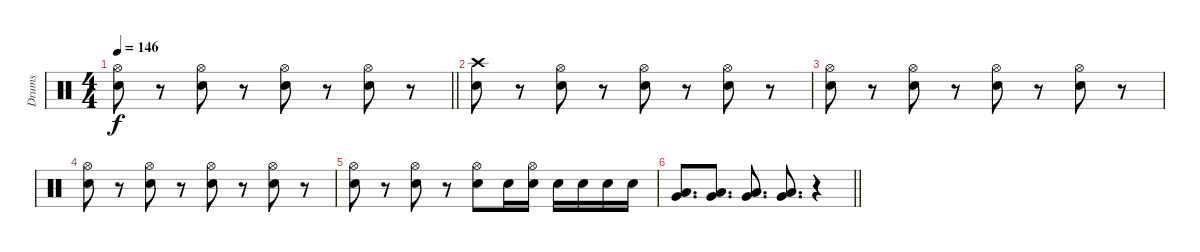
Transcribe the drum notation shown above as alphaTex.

\track ("Drums" "Drums") {instrument percussion}
\staff {score}
\articulation defaults
\ts (4 4)
\tempo 146
\clef neutral
\barLineRight lightlight
\ks c
("Hi-Hat (open)" "Snare (hit) 2").8{dy f} r.8 ("Hi-Hat (open)" "Snare (hit) 2").8 r.8 ("Hi-Hat (open)" "Snare (hit) 2").8 r.8 ("Hi-Hat (open)" "Snare (hit) 2").8 r.8 |
("Crash high (hit)" "Snare (hit) 2").8 r.8 ("Hi-Hat (open)" "Snare (hit) 2").8 r.8 ("Hi-Hat (open)" "Snare (hit) 2").8 r.8 ("Hi-Hat (open)" "Snare (hit) 2").8 r.8 |
("Hi-Hat (open)" "Snare (hit) 2").8 r.8 ("Hi-Hat (open)" "Snare (hit) 2").8 r.8 ("Hi-Hat (open)" "Snare (hit) 2").8 r.8 ("Hi-Hat (open)" "Snare (hit) 2").8 r.8 |
("Hi-Hat (open)" "Snare (hit) 2").8 r.8 ("Hi-Hat (open)" "Snare (hit) 2").8 r.8 ("Hi-Hat (open)" "Snare (hit) 2").8 r.8 ("Hi-Hat (open)" "Snare (hit) 2").8 r.8 |
("Hi-Hat (open)" "Snare (hit) 2").8 r.8 ("Hi-Hat (open)" "Snare (hit) 2").8 r.8 ("Hi-Hat (open)" "Snare (hit) 2").8 "Snare (hit) 2".16 ("Hi-Hat (open)" "Snare (hit) 2").16 "Snare (hit) 2".16 "Snare (hit) 2".16 "Snare (hit) 2".16 "Snare (hit) 2".16 |
\barLineRight lightlight
("Low Tom (hit)" "Very Low Tom (hit)").8{d} ("Low Tom (hit)" "Very Low Tom (hit)").8{d} ("Low Tom (hit)" "Very Low Tom (hit)").8{d} ("Low Tom (hit)" "Very Low Tom (hit)").8{d} r.4
